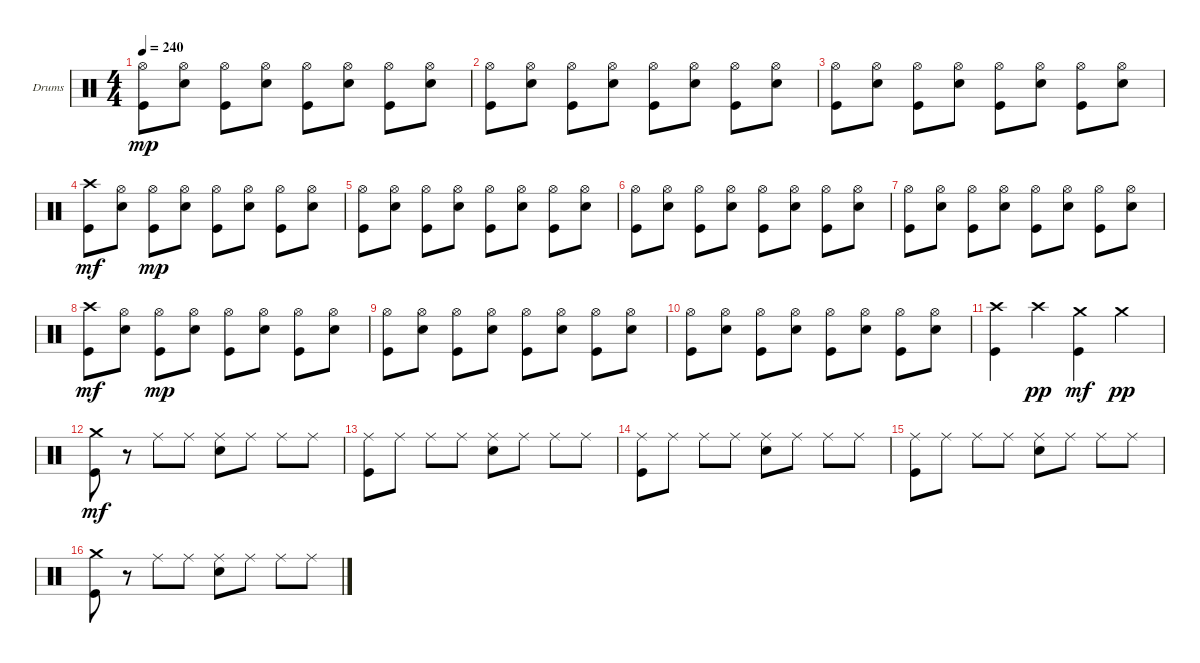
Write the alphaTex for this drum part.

\bracketExtendMode groupsimilarinstruments
\firstSystemTrackNameOrientation horizontal
\otherSystemsTrackNameOrientation horizontal
\track ("Drumkit" "Drums") {instrument percussion}
\staff {score}
\articulation defaults
\ts (4 4)
\tempo 240
\clef neutral
\ks c
("Hi-Hat (open)" "Kick (hit)").8{dy mp} ("Hi-Hat (open)" "Snare (hit) 2").8 ("Hi-Hat (open)" "Kick (hit)").8 ("Hi-Hat (open)" "Snare (hit) 2").8 ("Hi-Hat (open)" "Kick (hit)").8 ("Hi-Hat (open)" "Snare (hit) 2").8 ("Hi-Hat (open)" "Kick (hit)").8 ("Hi-Hat (open)" "Snare (hit) 2").8 |
("Hi-Hat (open)" "Kick (hit)").8 ("Hi-Hat (open)" "Snare (hit) 2").8 ("Hi-Hat (open)" "Kick (hit)").8 ("Hi-Hat (open)" "Snare (hit) 2").8 ("Hi-Hat (open)" "Kick (hit)").8 ("Hi-Hat (open)" "Snare (hit) 2").8 ("Hi-Hat (open)" "Kick (hit)").8 ("Hi-Hat (open)" "Snare (hit) 2").8 |
("Hi-Hat (open)" "Kick (hit)").8 ("Hi-Hat (open)" "Snare (hit) 2").8 ("Hi-Hat (open)" "Kick (hit)").8 ("Hi-Hat (open)" "Snare (hit) 2").8 ("Hi-Hat (open)" "Kick (hit)").8 ("Hi-Hat (open)" "Snare (hit) 2").8 ("Hi-Hat (open)" "Kick (hit)").8 ("Hi-Hat (open)" "Snare (hit) 2").8 |
("Crash high (hit)" "Kick (hit)").8{dy mf} ("Hi-Hat (open)" "Snare (hit) 2").8 ("Hi-Hat (open)" "Kick (hit)").8{dy mp} ("Hi-Hat (open)" "Snare (hit) 2").8 ("Hi-Hat (open)" "Kick (hit)").8 ("Hi-Hat (open)" "Snare (hit) 2").8 ("Hi-Hat (open)" "Kick (hit)").8 ("Hi-Hat (open)" "Snare (hit) 2").8 |
("Hi-Hat (open)" "Kick (hit)").8 ("Hi-Hat (open)" "Snare (hit) 2").8 ("Hi-Hat (open)" "Kick (hit)").8 ("Hi-Hat (open)" "Snare (hit) 2").8 ("Hi-Hat (open)" "Kick (hit)").8 ("Hi-Hat (open)" "Snare (hit) 2").8 ("Hi-Hat (open)" "Kick (hit)").8 ("Hi-Hat (open)" "Snare (hit) 2").8 |
("Hi-Hat (open)" "Kick (hit)").8 ("Hi-Hat (open)" "Snare (hit) 2").8 ("Hi-Hat (open)" "Kick (hit)").8 ("Hi-Hat (open)" "Snare (hit) 2").8 ("Hi-Hat (open)" "Kick (hit)").8 ("Hi-Hat (open)" "Snare (hit) 2").8 ("Hi-Hat (open)" "Kick (hit)").8 ("Hi-Hat (open)" "Snare (hit) 2").8 |
("Hi-Hat (open)" "Kick (hit)").8 ("Hi-Hat (open)" "Snare (hit) 2").8 ("Hi-Hat (open)" "Kick (hit)").8 ("Hi-Hat (open)" "Snare (hit) 2").8 ("Hi-Hat (open)" "Kick (hit)").8 ("Hi-Hat (open)" "Snare (hit) 2").8 ("Hi-Hat (open)" "Kick (hit)").8 ("Hi-Hat (open)" "Snare (hit) 2").8 |
("Crash high (hit)" "Kick (hit)").8{dy mf} ("Hi-Hat (open)" "Snare (hit) 2").8 ("Hi-Hat (open)" "Kick (hit)").8{dy mp} ("Hi-Hat (open)" "Snare (hit) 2").8 ("Hi-Hat (open)" "Kick (hit)").8 ("Hi-Hat (open)" "Snare (hit) 2").8 ("Hi-Hat (open)" "Kick (hit)").8 ("Hi-Hat (open)" "Snare (hit) 2").8 |
("Hi-Hat (open)" "Kick (hit)").8 ("Hi-Hat (open)" "Snare (hit) 2").8 ("Hi-Hat (open)" "Kick (hit)").8 ("Hi-Hat (open)" "Snare (hit) 2").8 ("Hi-Hat (open)" "Kick (hit)").8 ("Hi-Hat (open)" "Snare (hit) 2").8 ("Hi-Hat (open)" "Kick (hit)").8 ("Hi-Hat (open)" "Snare (hit) 2").8 |
("Hi-Hat (open)" "Kick (hit)").8 ("Hi-Hat (open)" "Snare (hit) 2").8 ("Hi-Hat (open)" "Kick (hit)").8 ("Hi-Hat (open)" "Snare (hit) 2").8 ("Hi-Hat (open)" "Kick (hit)").8 ("Hi-Hat (open)" "Snare (hit) 2").8 ("Hi-Hat (open)" "Kick (hit)").8 ("Hi-Hat (open)" "Snare (hit) 2").8 |
("Crash high (hit)" "Kick (hit)").4 "Crash high (hit)".4{dy pp} ("Crash medium (hit)" "Kick (hit)").4{dy mf} "Crash medium (hit)".4{dy pp} |
("Crash medium (hit)" "Kick (hit)").8{dy mf} r.8 "Ride (middle)".8 "Ride (middle)".8 ("Ride (middle)" "Snare (hit) 2").8 "Ride (middle)".8 "Ride (middle)".8 "Ride (middle)".8 |
("Ride (middle)" "Kick (hit)").8 "Ride (middle)".8 "Ride (middle)".8 "Ride (middle)".8 ("Ride (middle)" "Snare (hit) 2").8 "Ride (middle)".8 "Ride (middle)".8 "Ride (middle)".8 |
("Ride (middle)" "Kick (hit)").8 "Ride (middle)".8 "Ride (middle)".8 "Ride (middle)".8 ("Ride (middle)" "Snare (hit) 2").8 "Ride (middle)".8 "Ride (middle)".8 "Ride (middle)".8 |
("Ride (middle)" "Kick (hit)").8 "Ride (middle)".8 "Ride (middle)".8 "Ride (middle)".8 ("Ride (middle)" "Snare (hit) 2").8 "Ride (middle)".8 "Ride (middle)".8 "Ride (middle)".8 |
("Crash medium (hit)" "Kick (hit)").8 r.8 "Ride (middle)".8 "Ride (middle)".8 ("Ride (middle)" "Snare (hit) 2").8 "Ride (middle)".8 "Ride (middle)".8 "Ride (middle)".8
